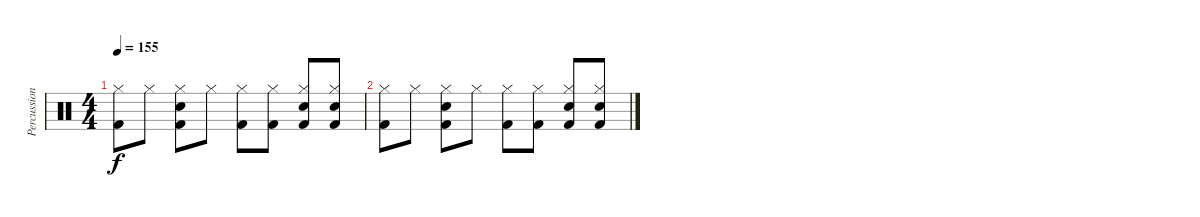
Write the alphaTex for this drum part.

\track ("Percussion" "Percussion") {instrument percussion}
\staff {score}
\articulation defaults
\ts (4 4)
\tempo 155
\clef neutral
\ks c
("Kick (hit) 2" "Hi-Hat (closed)").8{dy f} "Hi-Hat (closed)".8 ("Kick (hit) 2" "Snare (hit) 2" "Hi-Hat (closed)").8 "Hi-Hat (closed)".8 ("Kick (hit) 2" "Hi-Hat (closed)").8 ("Kick (hit) 2" "Hi-Hat (closed)").8 ("Kick (hit) 2" "Snare (hit) 2" "Hi-Hat (closed)").8 ("Kick (hit) 2" "Snare (hit) 2" "Hi-Hat (closed)").8 |
("Kick (hit) 2" "Hi-Hat (closed)").8 "Hi-Hat (closed)".8 ("Kick (hit) 2" "Snare (hit) 2" "Hi-Hat (closed)").8 "Hi-Hat (closed)".8 ("Kick (hit) 2" "Hi-Hat (closed)").8 ("Kick (hit) 2" "Hi-Hat (closed)").8 ("Kick (hit) 2" "Snare (hit) 2" "Hi-Hat (closed)").8 ("Kick (hit) 2" "Snare (hit) 2" "Hi-Hat (closed)").8
